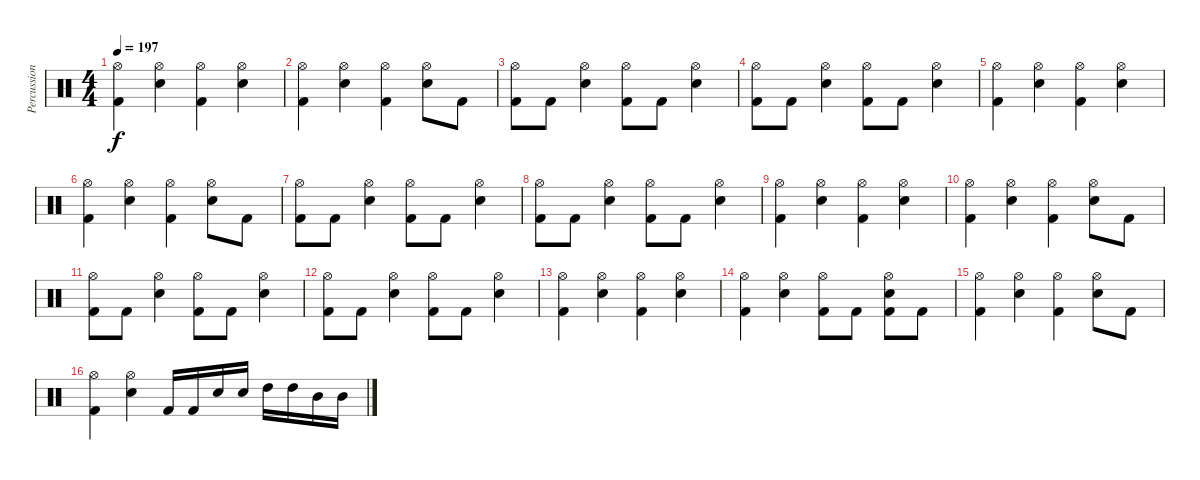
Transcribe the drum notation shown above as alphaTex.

\track ("Percussion" "Percussion") {instrument percussion}
\staff {score}
\articulation defaults
\ts (4 4)
\tempo 197
\clef neutral
\ks c
("Hi-Hat (open)" "Kick (hit) 2").4{dy f} ("Hi-Hat (open)" "Electric Snare (hit)").4 ("Hi-Hat (open)" "Kick (hit) 2").4 ("Hi-Hat (open)" "Electric Snare (hit)").4 |
("Hi-Hat (open)" "Kick (hit) 2").4 ("Hi-Hat (open)" "Electric Snare (hit)").4 ("Hi-Hat (open)" "Kick (hit) 2").4 ("Hi-Hat (open)" "Electric Snare (hit)").8 "Kick (hit) 2".8 |
("Hi-Hat (open)" "Kick (hit) 2").8 "Kick (hit) 2".8 ("Hi-Hat (open)" "Electric Snare (hit)").4 ("Hi-Hat (open)" "Kick (hit) 2").8 "Kick (hit) 2".8 ("Hi-Hat (open)" "Electric Snare (hit)").4 |
("Hi-Hat (open)" "Kick (hit) 2").8 "Kick (hit) 2".8 ("Hi-Hat (open)" "Electric Snare (hit)").4 ("Hi-Hat (open)" "Kick (hit) 2").8 "Kick (hit) 2".8 ("Hi-Hat (open)" "Electric Snare (hit)").4 |
("Hi-Hat (open)" "Kick (hit) 2").4 ("Hi-Hat (open)" "Electric Snare (hit)").4 ("Hi-Hat (open)" "Kick (hit) 2").4 ("Hi-Hat (open)" "Electric Snare (hit)").4 |
("Hi-Hat (open)" "Kick (hit) 2").4 ("Hi-Hat (open)" "Electric Snare (hit)").4 ("Hi-Hat (open)" "Kick (hit) 2").4 ("Hi-Hat (open)" "Electric Snare (hit)").8 "Kick (hit) 2".8 |
("Hi-Hat (open)" "Kick (hit) 2").8 "Kick (hit) 2".8 ("Hi-Hat (open)" "Electric Snare (hit)").4 ("Hi-Hat (open)" "Kick (hit) 2").8 "Kick (hit) 2".8 ("Hi-Hat (open)" "Electric Snare (hit)").4 |
("Hi-Hat (open)" "Kick (hit) 2").8 "Kick (hit) 2".8 ("Hi-Hat (open)" "Electric Snare (hit)").4 ("Hi-Hat (open)" "Kick (hit) 2").8 "Kick (hit) 2".8 ("Hi-Hat (open)" "Electric Snare (hit)").4 |
("Hi-Hat (open)" "Kick (hit) 2").4 ("Hi-Hat (open)" "Electric Snare (hit)").4 ("Hi-Hat (open)" "Kick (hit) 2").4 ("Hi-Hat (open)" "Electric Snare (hit)").4 |
("Hi-Hat (open)" "Kick (hit) 2").4 ("Hi-Hat (open)" "Electric Snare (hit)").4 ("Hi-Hat (open)" "Kick (hit) 2").4 ("Hi-Hat (open)" "Electric Snare (hit)").8 "Kick (hit) 2".8 |
("Hi-Hat (open)" "Kick (hit) 2").8 "Kick (hit) 2".8 ("Hi-Hat (open)" "Electric Snare (hit)").4 ("Hi-Hat (open)" "Kick (hit) 2").8 "Kick (hit) 2".8 ("Hi-Hat (open)" "Electric Snare (hit)").4 |
("Hi-Hat (open)" "Kick (hit) 2").8 "Kick (hit) 2".8 ("Hi-Hat (open)" "Electric Snare (hit)").4 ("Hi-Hat (open)" "Kick (hit) 2").8 "Kick (hit) 2".8 ("Hi-Hat (open)" "Electric Snare (hit)").4 |
("Hi-Hat (open)" "Kick (hit) 2").4 ("Hi-Hat (open)" "Electric Snare (hit)").4 ("Hi-Hat (open)" "Kick (hit) 2").4 ("Hi-Hat (open)" "Electric Snare (hit)").4 |
("Hi-Hat (open)" "Kick (hit) 2").4 ("Hi-Hat (open)" "Electric Snare (hit)").4 ("Hi-Hat (open)" "Kick (hit) 2").8 "Kick (hit) 2".8 ("Hi-Hat (open)" "Electric Snare (hit)" "Kick (hit) 2").8 "Kick (hit) 2".8 |
("Hi-Hat (open)" "Kick (hit) 2").4 ("Hi-Hat (open)" "Electric Snare (hit)").4 ("Hi-Hat (open)" "Kick (hit) 2").4 ("Hi-Hat (open)" "Electric Snare (hit)").8 "Kick (hit) 2".8 |
("Hi-Hat (open)" "Kick (hit) 2").4 ("Hi-Hat (open)" "Electric Snare (hit)").4 "Kick (hit) 2".16 "Kick (hit) 2".16 "Electric Snare (hit)".16 "Electric Snare (hit)".16 "High Tom (hit)".16 "High Tom (hit)".16 "Mid Tom (hit)".16 "Mid Tom (hit)".16
